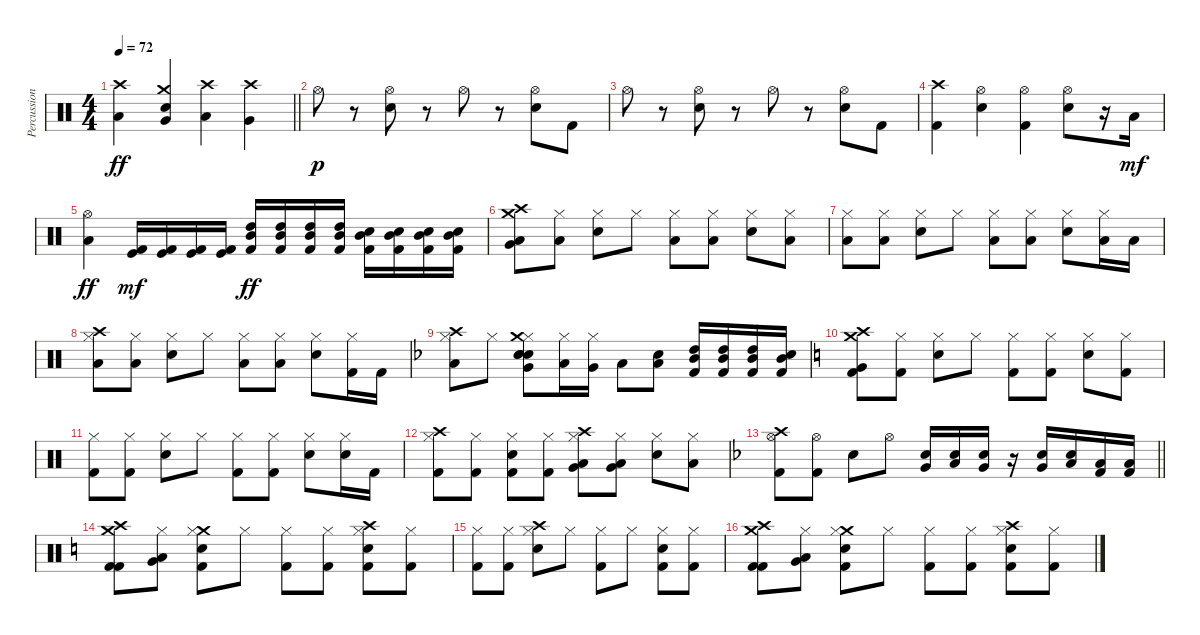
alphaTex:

\track ("Percussion" "Percussion") {instrument percussion}
\staff {score}
\articulation defaults
\ts (4 4)
\tempo 72
\clef neutral
\barLineRight lightlight
\ks c
("Crash high (hit)" "Low Floor Tom (hit)").4{dy ff} ("Snare (hit) 2" "Crash medium (hit)" "Very Low Tom (hit)").4 ("Crash high (hit)" "Low Floor Tom (hit)").4 ("Crash high (hit)" "Very Low Tom (hit)").4 |
"Hi-Hat (open)".8{dy p} r.8 ("Hi-Hat (open)" "Snare (hit) 2").8 r.8 "Hi-Hat (open)".8 r.8 ("Hi-Hat (open)" "Snare (hit) 2").8 "Kick (hit) 2".8 |
"Hi-Hat (open)".8 r.8 ("Hi-Hat (open)" "Snare (hit) 2").8 r.8 "Hi-Hat (open)".8 r.8 ("Hi-Hat (open)" "Snare (hit) 2").8 "Kick (hit) 2".8 |
("Crash high (hit)" "Kick (hit) 2").4 ("Snare (hit) 2" "Hi-Hat (open)").4 ("Hi-Hat (open)" "Kick (hit) 2").4 ("Hi-Hat (open)" "Snare (hit) 2").8 r.16 "Low Floor Tom (hit)".16{dy mf} |
("Hi-Hat (open)" "Low Floor Tom (hit)").4{dy ff} ("Kick (hit) 2" "Kick (hit)").16{dy mf} ("Kick (hit) 2" "Kick (hit)").16 ("Kick (hit) 2" "Kick (hit)").16 ("Kick (hit) 2" "Kick (hit)").16 ("Kick (hit) 2" "Mid Tom (hit)" "High Tom (hit)").16{dy ff} ("Kick (hit) 2" "Mid Tom (hit)" "High Tom (hit)").16 ("Kick (hit) 2" "High Tom (hit)" "Mid Tom (hit)").16 ("Kick (hit) 2" "Mid Tom (hit)" "High Tom (hit)").16 ("Kick (hit) 2" "Snare (hit) 2" "Mid Tom (hit)").16 ("Kick (hit) 2" "Snare (hit) 2" "Mid Tom (hit)").16 ("Kick (hit) 2" "Snare (hit) 2" "Mid Tom (hit)").16 ("Kick (hit) 2" "Snare (hit) 2" "Mid Tom (hit)").16 |
("Crash medium (hit)" "Crash high (hit)" "Low Floor Tom (hit)" "Very Low Tom (hit)").8 ("Hi-Hat (closed)" "Low Floor Tom (hit)").8 ("Hi-Hat (closed)" "Snare (hit) 2").8 "Hi-Hat (closed)".8 ("Hi-Hat (closed)" "Low Floor Tom (hit)").8 ("Hi-Hat (closed)" "Low Floor Tom (hit)").8 ("Hi-Hat (closed)" "Snare (hit) 2").8 ("Hi-Hat (closed)" "Low Floor Tom (hit)").8 |
("Hi-Hat (closed)" "Low Floor Tom (hit)").8 ("Hi-Hat (closed)" "Low Floor Tom (hit)").8 ("Hi-Hat (closed)" "Snare (hit) 2").8 "Hi-Hat (closed)".8 ("Hi-Hat (closed)" "Low Floor Tom (hit)").8 ("Hi-Hat (closed)" "Low Floor Tom (hit)").8 ("Hi-Hat (closed)" "Snare (hit) 2").8 ("Hi-Hat (closed)" "Low Floor Tom (hit)").16 "Low Floor Tom (hit)".16 |
("Hi-Hat (closed)" "Crash high (hit)" "Low Floor Tom (hit)").8 ("Hi-Hat (closed)" "Low Floor Tom (hit)").8 ("Hi-Hat (closed)" "Snare (hit) 2").8 "Hi-Hat (closed)".8 ("Hi-Hat (closed)" "Low Floor Tom (hit)").8 ("Hi-Hat (closed)" "Low Floor Tom (hit)").8 ("Hi-Hat (closed)" "Snare (hit) 2").8 ("Hi-Hat (closed)" "Kick (hit) 2").16 "Kick (hit) 2".16 |
\ks f
("Hi-Hat (closed)" "Crash high (hit)" "Low Floor Tom (hit)").8 "Hi-Hat (closed)".8 ("Hand Clap (hit)" "Electric Snare (hit)" "Hi-Hat (closed)" "Crash medium (hit)" "Very Low Tom (hit)" "Snare (hit) 2").8 ("Hi-Hat (closed)" "Low Floor Tom (hit)").16 ("Hi-Hat (closed)" "Very Low Tom (hit)").16 "Low Floor Tom (hit)".8 ("Snare (hit) 2" "Low Floor Tom (hit)").8 ("Kick (hit) 2" "Mid Tom (hit)" "High Tom (hit)").16 ("Kick (hit) 2" "High Tom (hit)" "Mid Tom (hit)").16 ("Kick (hit) 2" "Mid Tom (hit)" "High Tom (hit)").16 ("Kick (hit) 2" "Snare (hit) 2" "Mid Tom (hit)").16 |
\ks c
("Crash medium (hit)" "Crash high (hit)" "Kick (hit) 2" "Very Low Tom (hit)").8 ("Hi-Hat (closed)" "Kick (hit) 2").8 ("Hi-Hat (closed)" "Snare (hit) 2").8 "Hi-Hat (closed)".8 ("Hi-Hat (closed)" "Kick (hit) 2").8 ("Hi-Hat (closed)" "Kick (hit) 2").8 ("Hi-Hat (closed)" "Snare (hit) 2").8 ("Hi-Hat (closed)" "Kick (hit) 2").8 |
("Hi-Hat (closed)" "Kick (hit) 2").8 ("Hi-Hat (closed)" "Kick (hit) 2").8 ("Hi-Hat (closed)" "Snare (hit) 2").8 "Hi-Hat (closed)".8 ("Hi-Hat (closed)" "Kick (hit) 2").8 ("Hi-Hat (closed)" "Kick (hit) 2").8 ("Hi-Hat (closed)" "Snare (hit) 2").8 ("Hi-Hat (closed)" "Snare (hit) 2").16 "Kick (hit) 2".16 |
("Hi-Hat (closed)" "Crash high (hit)" "Kick (hit) 2").8 ("Hi-Hat (closed)" "Kick (hit) 2").8 ("Hi-Hat (closed)" "Snare (hit) 2" "Kick (hit) 2").8 ("Hi-Hat (closed)" "Kick (hit) 2").8 ("Crash high (hit)" "Hi-Hat (closed)" "Low Floor Tom (hit)" "Very Low Tom (hit)").8 ("Hi-Hat (closed)" "Low Floor Tom (hit)" "Very Low Tom (hit)").8 ("Hi-Hat (closed)" "Snare (hit) 2").8 ("Hi-Hat (closed)" "Low Floor Tom (hit)").8 |
\barLineRight lightlight
\ks f
("Crash high (hit)" "Kick (hit) 2" "Hi-Hat (open)").8 ("Hi-Hat (open)" "Kick (hit) 2").8 "Snare (hit) 2".8 "Hi-Hat (open)".8 ("Electric Snare (hit)" "Very Low Tom (hit)").16 ("Electric Snare (hit)" "Low Floor Tom (hit)").16 ("Electric Snare (hit)" "Very Low Tom (hit)").16 r.16 ("Electric Snare (hit)" "Very Low Tom (hit)").16 ("Electric Snare (hit)" "Low Floor Tom (hit)").16 ("Kick (hit) 2" "Low Floor Tom (hit)").16 ("Kick (hit) 2" "Low Floor Tom (hit)").16 |
\ks c
("Kick (hit) 2" "Kick (hit) 2" "Crash high (hit)" "Crash medium (hit)").8 ("Hi-Hat (closed)" "Low Floor Tom (hit)" "Very Low Tom (hit)").8 ("Crash medium (hit)" "Hi-Hat (closed)" "Snare (hit) 2" "Kick (hit) 2").8 "Hi-Hat (closed)".8 ("Hi-Hat (closed)" "Kick (hit) 2").8 ("Hi-Hat (closed)" "Kick (hit) 2").8 ("Crash high (hit)" "Hi-Hat (closed)" "Snare (hit) 2" "Kick (hit) 2").8 ("Hi-Hat (closed)" "Kick (hit) 2").8 |
("Hi-Hat (closed)" "Kick (hit) 2").8 ("Hi-Hat (closed)" "Kick (hit) 2").8 ("Crash high (hit)" "Hi-Hat (closed)" "Snare (hit) 2").8 "Hi-Hat (closed)".8 ("Hi-Hat (closed)" "Kick (hit) 2").8 "Hi-Hat (closed)".8 ("Hi-Hat (closed)" "Snare (hit) 2" "Kick (hit) 2").8 ("Hi-Hat (closed)" "Kick (hit) 2").8 |
("Crash medium (hit)" "Crash high (hit)" "Kick (hit) 2" "Kick (hit) 2").8 ("Hi-Hat (closed)" "Low Floor Tom (hit)" "Very Low Tom (hit)").8 ("Crash medium (hit)" "Hi-Hat (closed)" "Snare (hit) 2" "Kick (hit) 2").8 "Hi-Hat (closed)".8 ("Hi-Hat (closed)" "Kick (hit) 2").8 ("Hi-Hat (closed)" "Kick (hit) 2").8 ("Crash high (hit)" "Hi-Hat (closed)" "Snare (hit) 2" "Kick (hit) 2").8 ("Hi-Hat (closed)" "Kick (hit) 2").8
